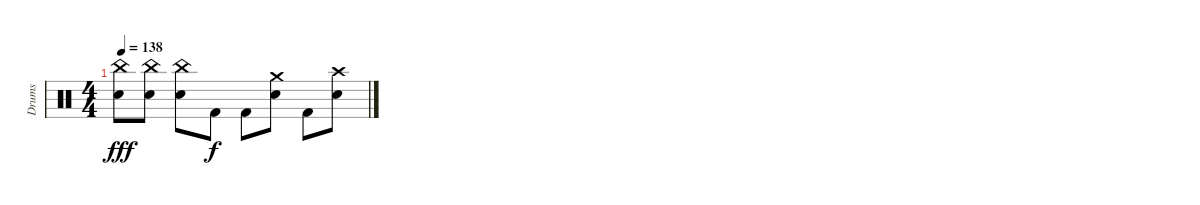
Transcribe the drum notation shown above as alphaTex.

\track ("Drums" "Drums") {instrument percussion}
\staff
\articulation defaults
\ts (4 4)
\tempo 138
\clef neutral
\ks c
("China (hit)" "Snare (hit) 2").8{dy fff} ("China (hit)" "Snare (hit) 2").8 ("China (hit)" "Snare (hit) 2").8 "Kick (hit) 2".8{dy f} "Kick (hit) 2".8 ("Crash medium (hit)" "Snare (hit) 2").8 "Kick (hit) 2".8 ("Crash high (hit)" "Snare (hit) 2").8
